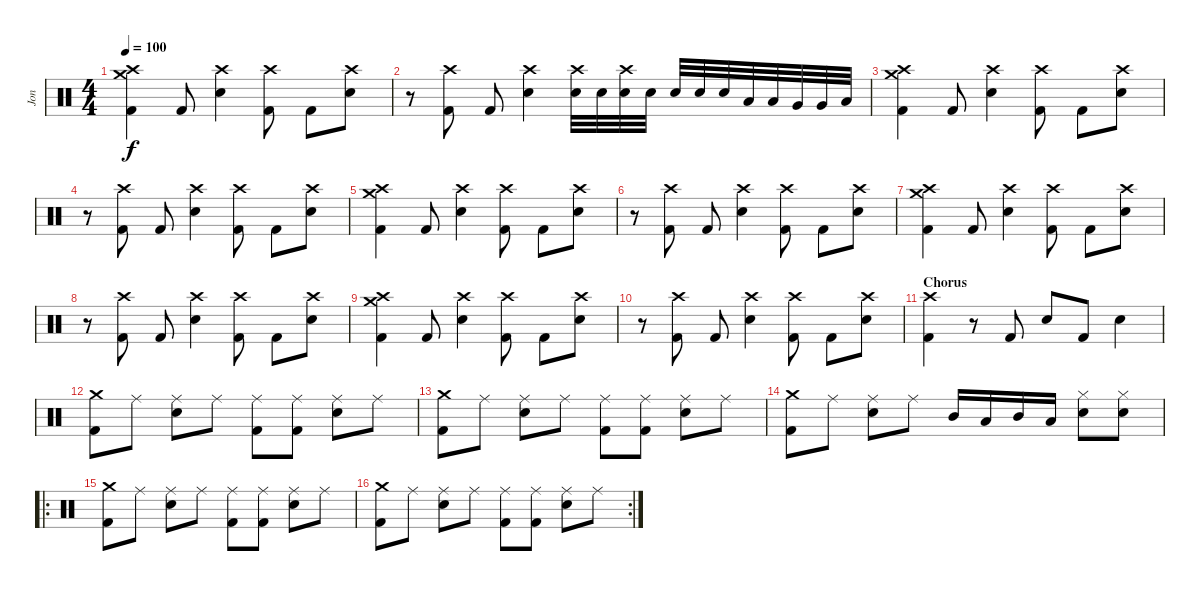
\track ("Jon" "Jon") {instrument percussion}
\staff {score}
\articulation defaults
\ts (4 4)
\tempo 100
\clef neutral
\ks c
("Crash medium (hit)" "Crash high (hit)" "Kick (hit) 2").4{dy f} "Kick (hit) 2".8 ("Crash high (hit)" "Snare (hit) 2").4 ("Crash high (hit)" "Kick (hit) 2").8 "Kick (hit) 2".8 ("Crash high (hit)" "Snare (hit) 2").8 |
r.8 ("Crash high (hit)" "Kick (hit) 2").8 "Kick (hit) 2".8 ("Crash high (hit)" "Snare (hit) 2").4 ("Crash high (hit)" "Snare (hit) 2").32 "Snare (hit) 2".32 ("Crash high (hit)" "Snare (hit) 2").32 "Snare (hit) 2".32 "Snare (hit) 2".32 "Snare (hit) 2".32 "Snare (hit) 2".32 "Low Tom (hit)".32 "Low Tom (hit)".32 "Very Low Tom (hit)".32 "Very Low Tom (hit)".32 "Low Floor Tom (hit)".32 |
("Crash medium (hit)" "Crash high (hit)" "Kick (hit) 2").4 "Kick (hit) 2".8 ("Crash high (hit)" "Snare (hit) 2").4 ("Crash high (hit)" "Kick (hit) 2").8 "Kick (hit) 2".8 ("Crash high (hit)" "Snare (hit) 2").8 |
r.8 ("Crash high (hit)" "Kick (hit) 2").8 "Kick (hit) 2".8 ("Crash high (hit)" "Snare (hit) 2").4 ("Crash high (hit)" "Kick (hit) 2").8 "Kick (hit) 2".8 ("Crash high (hit)" "Snare (hit) 2").8 |
("Crash medium (hit)" "Crash high (hit)" "Kick (hit) 2").4 "Kick (hit) 2".8 ("Crash high (hit)" "Snare (hit) 2").4 ("Crash high (hit)" "Kick (hit) 2").8 "Kick (hit) 2".8 ("Crash high (hit)" "Snare (hit) 2").8 |
r.8 ("Crash high (hit)" "Kick (hit) 2").8 "Kick (hit) 2".8 ("Crash high (hit)" "Snare (hit) 2").4 ("Crash high (hit)" "Kick (hit) 2").8 "Kick (hit) 2".8 ("Crash high (hit)" "Snare (hit) 2").8 |
("Crash medium (hit)" "Crash high (hit)" "Kick (hit) 2").4 "Kick (hit) 2".8 ("Crash high (hit)" "Snare (hit) 2").4 ("Crash high (hit)" "Kick (hit) 2").8 "Kick (hit) 2".8 ("Crash high (hit)" "Snare (hit) 2").8 |
r.8 ("Crash high (hit)" "Kick (hit) 2").8 "Kick (hit) 2".8 ("Crash high (hit)" "Snare (hit) 2").4 ("Crash high (hit)" "Kick (hit) 2").8 "Kick (hit) 2".8 ("Crash high (hit)" "Snare (hit) 2").8 |
("Crash medium (hit)" "Crash high (hit)" "Kick (hit) 2").4 "Kick (hit) 2".8 ("Crash high (hit)" "Snare (hit) 2").4 ("Crash high (hit)" "Kick (hit) 2").8 "Kick (hit) 2".8 ("Crash high (hit)" "Snare (hit) 2").8 |
r.8 ("Crash high (hit)" "Kick (hit) 2").8 "Kick (hit) 2".8 ("Crash high (hit)" "Snare (hit) 2").4 ("Crash high (hit)" "Kick (hit) 2").8 "Kick (hit) 2".8 ("Crash high (hit)" "Snare (hit) 2").8 |
\section ("" "Chorus")
("Crash high (hit)" "Kick (hit) 2").4 r.8 "Kick (hit) 2".8 "Snare (hit) 2".8 "Kick (hit) 2".8 "Snare (hit) 2".4 |
("Crash medium (hit)" "Kick (hit) 2").8 "Ride (middle)".8 ("Ride (middle)" "Snare (hit) 2").8 "Ride (middle)".8 ("Ride (middle)" "Kick (hit) 2").8 ("Ride (middle)" "Kick (hit) 2").8 ("Ride (middle)" "Snare (hit) 2").8 "Ride (middle)".8 |
("Crash medium (hit)" "Kick (hit) 2").8 "Ride (middle)".8 ("Ride (middle)" "Snare (hit) 2").8 "Ride (middle)".8 ("Ride (middle)" "Kick (hit) 2").8 ("Ride (middle)" "Kick (hit) 2").8 ("Ride (middle)" "Snare (hit) 2").8 "Ride (middle)".8 |
("Crash medium (hit)" "Kick (hit) 2").8 "Ride (middle)".8 ("Ride (middle)" "Snare (hit) 2").8 "Ride (middle)".8 "Mid Tom (hit)".16 "Low Tom (hit)".16 "Mid Tom (hit)".16 "Low Tom (hit)".16 ("Hi-Hat (closed)" "Snare (hit) 2").8 ("Hi-Hat (closed)" "Snare (hit) 2").8 |
\ro
("Crash medium (hit)" "Kick (hit) 2").8 "Ride (middle)".8 ("Ride (middle)" "Snare (hit) 2").8 "Ride (middle)".8 ("Ride (middle)" "Kick (hit) 2").8 ("Ride (middle)" "Kick (hit) 2").8 ("Ride (middle)" "Snare (hit) 2").8 "Ride (middle)".8 |
\rc 2
("Crash medium (hit)" "Kick (hit) 2").8 "Ride (middle)".8 ("Ride (middle)" "Snare (hit) 2").8 "Ride (middle)".8 ("Ride (middle)" "Kick (hit) 2").8 ("Ride (middle)" "Kick (hit) 2").8 ("Ride (middle)" "Snare (hit) 2").8 "Ride (middle)".8
